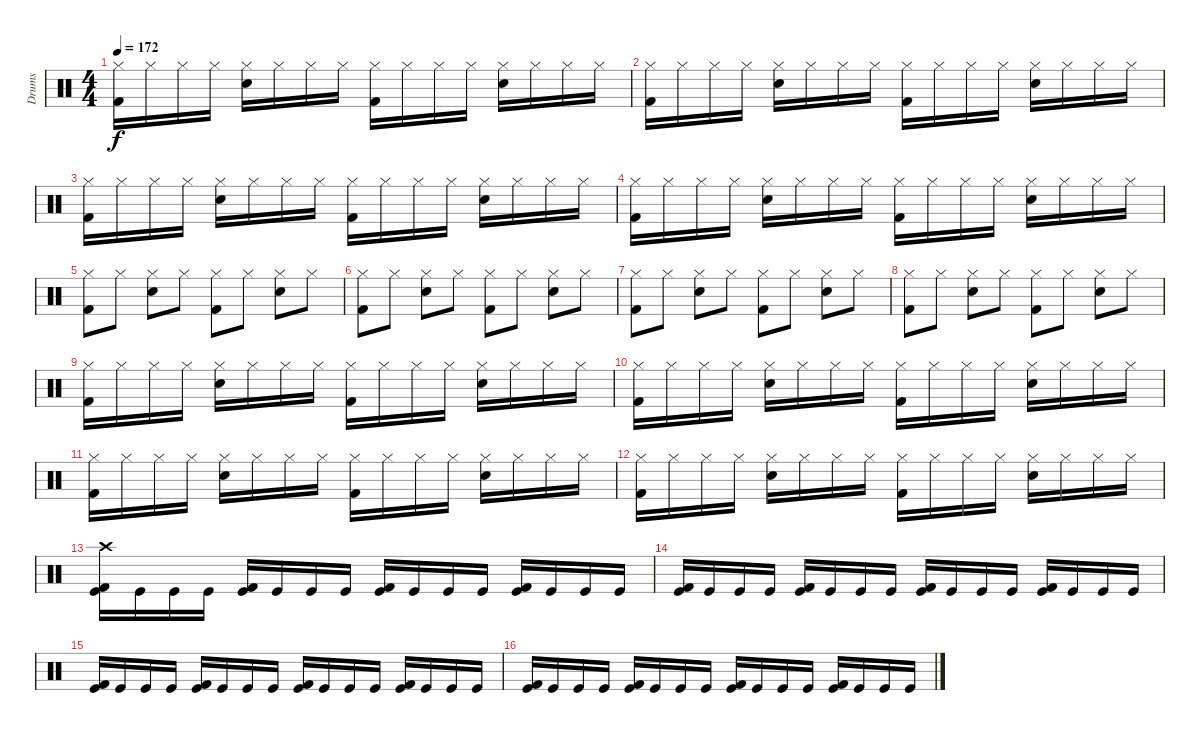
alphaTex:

\track ("Drums" "Drums") {instrument percussion}
\staff {score}
\articulation defaults
\ts (4 4)
\tempo 172
\clef neutral
\ks c
("Kick (hit) 2" "Hi-Hat (closed)").16{dy f} "Hi-Hat (closed)".16 "Hi-Hat (closed)".16 "Hi-Hat (closed)".16 ("Electric Snare (hit)" "Hi-Hat (closed)").16 "Hi-Hat (closed)".16 "Hi-Hat (closed)".16 "Hi-Hat (closed)".16 ("Kick (hit) 2" "Hi-Hat (closed)").16 "Hi-Hat (closed)".16 "Hi-Hat (closed)".16 "Hi-Hat (closed)".16 ("Electric Snare (hit)" "Hi-Hat (closed)").16 "Hi-Hat (closed)".16 "Hi-Hat (closed)".16 "Hi-Hat (closed)".16 |
("Kick (hit) 2" "Hi-Hat (closed)").16 "Hi-Hat (closed)".16 "Hi-Hat (closed)".16 "Hi-Hat (closed)".16 ("Electric Snare (hit)" "Hi-Hat (closed)").16 "Hi-Hat (closed)".16 "Hi-Hat (closed)".16 "Hi-Hat (closed)".16 ("Kick (hit) 2" "Hi-Hat (closed)").16 "Hi-Hat (closed)".16 "Hi-Hat (closed)".16 "Hi-Hat (closed)".16 ("Electric Snare (hit)" "Hi-Hat (closed)").16 "Hi-Hat (closed)".16 "Hi-Hat (closed)".16 "Hi-Hat (closed)".16 |
("Kick (hit) 2" "Hi-Hat (closed)").16 "Hi-Hat (closed)".16 "Hi-Hat (closed)".16 "Hi-Hat (closed)".16 ("Electric Snare (hit)" "Hi-Hat (closed)").16 "Hi-Hat (closed)".16 "Hi-Hat (closed)".16 "Hi-Hat (closed)".16 ("Kick (hit) 2" "Hi-Hat (closed)").16 "Hi-Hat (closed)".16 "Hi-Hat (closed)".16 "Hi-Hat (closed)".16 ("Electric Snare (hit)" "Hi-Hat (closed)").16 "Hi-Hat (closed)".16 "Hi-Hat (closed)".16 "Hi-Hat (closed)".16 |
("Kick (hit) 2" "Hi-Hat (closed)").16 "Hi-Hat (closed)".16 "Hi-Hat (closed)".16 "Hi-Hat (closed)".16 ("Electric Snare (hit)" "Hi-Hat (closed)").16 "Hi-Hat (closed)".16 "Hi-Hat (closed)".16 "Hi-Hat (closed)".16 ("Kick (hit) 2" "Hi-Hat (closed)").16 "Hi-Hat (closed)".16 "Hi-Hat (closed)".16 "Hi-Hat (closed)".16 ("Electric Snare (hit)" "Hi-Hat (closed)").16 "Hi-Hat (closed)".16 "Hi-Hat (closed)".16 "Hi-Hat (closed)".16 |
("Kick (hit) 2" "Hi-Hat (closed)").8 "Hi-Hat (closed)".8 ("Electric Snare (hit)" "Hi-Hat (closed)").8 "Hi-Hat (closed)".8 ("Kick (hit) 2" "Hi-Hat (closed)").8 "Hi-Hat (closed)".8 ("Electric Snare (hit)" "Hi-Hat (closed)").8 "Hi-Hat (closed)".8 |
("Kick (hit) 2" "Hi-Hat (closed)").8 "Hi-Hat (closed)".8 ("Electric Snare (hit)" "Hi-Hat (closed)").8 "Hi-Hat (closed)".8 ("Kick (hit) 2" "Hi-Hat (closed)").8 "Hi-Hat (closed)".8 ("Electric Snare (hit)" "Hi-Hat (closed)").8 "Hi-Hat (closed)".8 |
("Kick (hit) 2" "Hi-Hat (closed)").8 "Hi-Hat (closed)".8 ("Electric Snare (hit)" "Hi-Hat (closed)").8 "Hi-Hat (closed)".8 ("Kick (hit) 2" "Hi-Hat (closed)").8 "Hi-Hat (closed)".8 ("Electric Snare (hit)" "Hi-Hat (closed)").8 "Hi-Hat (closed)".8 |
("Kick (hit) 2" "Hi-Hat (closed)").8 "Hi-Hat (closed)".8 ("Electric Snare (hit)" "Hi-Hat (closed)").8 "Hi-Hat (closed)".8 ("Kick (hit) 2" "Hi-Hat (closed)").8 "Hi-Hat (closed)".8 ("Electric Snare (hit)" "Hi-Hat (closed)").8 "Hi-Hat (closed)".8 |
("Kick (hit) 2" "Hi-Hat (closed)").16 "Hi-Hat (closed)".16 "Hi-Hat (closed)".16 "Hi-Hat (closed)".16 ("Electric Snare (hit)" "Hi-Hat (closed)").16 "Hi-Hat (closed)".16 "Hi-Hat (closed)".16 "Hi-Hat (closed)".16 ("Kick (hit) 2" "Hi-Hat (closed)").16 "Hi-Hat (closed)".16 "Hi-Hat (closed)".16 "Hi-Hat (closed)".16 ("Electric Snare (hit)" "Hi-Hat (closed)").16 "Hi-Hat (closed)".16 "Hi-Hat (closed)".16 "Hi-Hat (closed)".16 |
("Kick (hit) 2" "Hi-Hat (closed)").16 "Hi-Hat (closed)".16 "Hi-Hat (closed)".16 "Hi-Hat (closed)".16 ("Electric Snare (hit)" "Hi-Hat (closed)").16 "Hi-Hat (closed)".16 "Hi-Hat (closed)".16 "Hi-Hat (closed)".16 ("Kick (hit) 2" "Hi-Hat (closed)").16 "Hi-Hat (closed)".16 "Hi-Hat (closed)".16 "Hi-Hat (closed)".16 ("Electric Snare (hit)" "Hi-Hat (closed)").16 "Hi-Hat (closed)".16 "Hi-Hat (closed)".16 "Hi-Hat (closed)".16 |
("Kick (hit) 2" "Hi-Hat (closed)").16 "Hi-Hat (closed)".16 "Hi-Hat (closed)".16 "Hi-Hat (closed)".16 ("Electric Snare (hit)" "Hi-Hat (closed)").16 "Hi-Hat (closed)".16 "Hi-Hat (closed)".16 "Hi-Hat (closed)".16 ("Kick (hit) 2" "Hi-Hat (closed)").16 "Hi-Hat (closed)".16 "Hi-Hat (closed)".16 "Hi-Hat (closed)".16 ("Electric Snare (hit)" "Hi-Hat (closed)").16 "Hi-Hat (closed)".16 "Hi-Hat (closed)".16 "Hi-Hat (closed)".16 |
("Kick (hit) 2" "Hi-Hat (closed)").16 "Hi-Hat (closed)".16 "Hi-Hat (closed)".16 "Hi-Hat (closed)".16 ("Electric Snare (hit)" "Hi-Hat (closed)").16 "Hi-Hat (closed)".16 "Hi-Hat (closed)".16 "Hi-Hat (closed)".16 ("Kick (hit) 2" "Hi-Hat (closed)").16 "Hi-Hat (closed)".16 "Hi-Hat (closed)".16 "Hi-Hat (closed)".16 ("Electric Snare (hit)" "Hi-Hat (closed)").16 "Hi-Hat (closed)".16 "Hi-Hat (closed)".16 "Hi-Hat (closed)".16 |
("Kick (hit) 2" "Kick (hit)" "Crash high (hit)").16 "Kick (hit)".16 "Kick (hit)".16 "Kick (hit)".16 ("Kick (hit) 2" "Kick (hit)").16 "Kick (hit)".16 "Kick (hit)".16 "Kick (hit)".16 ("Kick (hit) 2" "Kick (hit)").16 "Kick (hit)".16 "Kick (hit)".16 "Kick (hit)".16 ("Kick (hit) 2" "Kick (hit)").16 "Kick (hit)".16 "Kick (hit)".16 "Kick (hit)".16 |
("Kick (hit) 2" "Kick (hit)").16 "Kick (hit)".16 "Kick (hit)".16 "Kick (hit)".16 ("Kick (hit) 2" "Kick (hit)").16 "Kick (hit)".16 "Kick (hit)".16 "Kick (hit)".16 ("Kick (hit) 2" "Kick (hit)").16 "Kick (hit)".16 "Kick (hit)".16 "Kick (hit)".16 ("Kick (hit) 2" "Kick (hit)").16 "Kick (hit)".16 "Kick (hit)".16 "Kick (hit)".16 |
("Kick (hit) 2" "Kick (hit)").16 "Kick (hit)".16 "Kick (hit)".16 "Kick (hit)".16 ("Kick (hit) 2" "Kick (hit)").16 "Kick (hit)".16 "Kick (hit)".16 "Kick (hit)".16 ("Kick (hit) 2" "Kick (hit)").16 "Kick (hit)".16 "Kick (hit)".16 "Kick (hit)".16 ("Kick (hit) 2" "Kick (hit)").16 "Kick (hit)".16 "Kick (hit)".16 "Kick (hit)".16 |
("Kick (hit) 2" "Kick (hit)").16 "Kick (hit)".16 "Kick (hit)".16 "Kick (hit)".16 ("Kick (hit) 2" "Kick (hit)").16 "Kick (hit)".16 "Kick (hit)".16 "Kick (hit)".16 ("Kick (hit) 2" "Kick (hit)").16 "Kick (hit)".16 "Kick (hit)".16 "Kick (hit)".16 ("Kick (hit) 2" "Kick (hit)").16 "Kick (hit)".16 "Kick (hit)".16 "Kick (hit)".16
